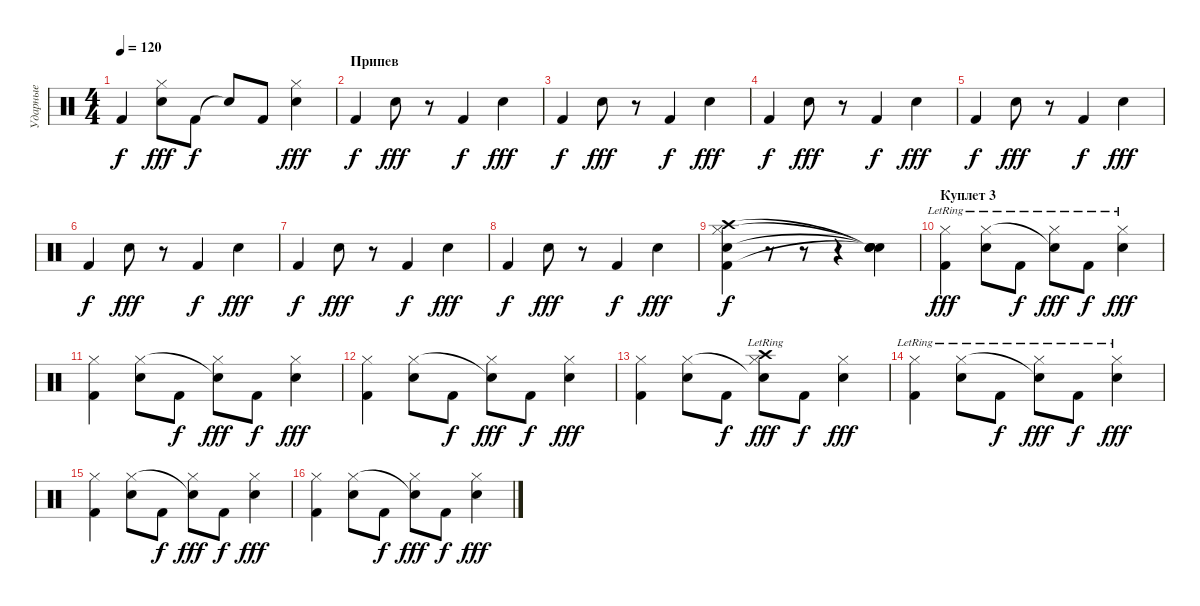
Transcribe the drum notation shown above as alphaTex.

\track ("Ударные" "Ударные") {instrument percussion}
\staff {score}
\articulation defaults
\ts (4 4)
\tempo 120
\clef neutral
\ks c "Kick (hit) 2".4{dy f}
("Snare (hit) 2" "Hi-Hat (closed)").8{dy fff} "Kick (hit) 2".8{dy f} "Snare (hit)"{t}.8 "Kick (hit) 2".8 ("Snare (hit) 2" "Hi-Hat (closed)").4{dy fff} |
\section ("" "Припев")
"Kick (hit) 2".4{dy f} "Snare (hit) 2".8{dy fff} r.8 "Kick (hit) 2".4{dy f} "Snare (hit) 2".4{dy fff} |
"Kick (hit) 2".4{dy f} "Snare (hit) 2".8{dy fff} r.8 "Kick (hit) 2".4{dy f} "Snare (hit) 2".4{dy fff} |
"Kick (hit) 2".4{dy f} "Snare (hit) 2".8{dy fff} r.8 "Kick (hit) 2".4{dy f} "Snare (hit) 2".4{dy fff} |
"Kick (hit) 2".4{dy f} "Snare (hit) 2".8{dy fff} r.8 "Kick (hit) 2".4{dy f} "Snare (hit) 2".4{dy fff} |
"Kick (hit) 2".4{dy f} "Snare (hit) 2".8{dy fff} r.8 "Kick (hit) 2".4{dy f} "Snare (hit) 2".4{dy fff} |
"Kick (hit) 2".4{dy f} "Snare (hit) 2".8{dy fff} r.8 "Kick (hit) 2".4{dy f} "Snare (hit) 2".4{dy fff} |
"Kick (hit) 2".4{dy f} "Snare (hit) 2".8{dy fff} r.8 "Kick (hit) 2".4{dy f} "Snare (hit) 2".4{dy fff} |
("Snare (hit) 2" "Hi-Hat (closed)" "Kick (hit) 2" "Crash high (hit)").4{dy f} r.8 r.8 r.4 ("Snare (hit)"{t} "Snare (hit)"{t} "Snare (hit)"{t} "Snare (hit)"{t}).4 |
\section ("" "Куплет 3")
("Hi-Hat (closed)" "Kick (hit) 2"{lr}).4{dy fff} ("Snare (hit) 2"{lr} "Hi-Hat (closed)").8 "Kick (hit) 2"{lr}.8{dy f} ("Hi-Hat (closed)"{lr} "Snare (hit)"{t}).8{dy fff} "Kick (hit) 2"{lr}.8{dy f} ("Snare (hit) 2"{lr} "Hi-Hat (closed)"{lr}).4{dy fff} |
("Hi-Hat (closed)" "Kick (hit) 2").4 ("Snare (hit) 2" "Hi-Hat (closed)").8 "Kick (hit) 2".8{dy f} ("Hi-Hat (closed)" "Snare (hit)"{t}).8{dy fff} "Kick (hit) 2".8{dy f} ("Snare (hit) 2" "Hi-Hat (closed)").4{dy fff} |
("Hi-Hat (closed)" "Kick (hit) 2").4 ("Snare (hit) 2" "Hi-Hat (closed)").8 "Kick (hit) 2".8{dy f} ("Hi-Hat (closed)" "Snare (hit)"{t}).8{dy fff} "Kick (hit) 2".8{dy f} ("Snare (hit) 2" "Hi-Hat (closed)").4{dy fff} |
("Hi-Hat (closed)" "Kick (hit) 2").4 ("Snare (hit) 2" "Hi-Hat (closed)").8 "Kick (hit) 2".8{dy f} ("Hi-Hat (closed)" "Snare (hit)"{t} "Crash high (hit)"{lr}).8{dy fff} "Kick (hit) 2".8{dy f} ("Snare (hit) 2" "Hi-Hat (closed)").4{dy fff} |
("Hi-Hat (closed)" "Kick (hit) 2"{lr}).4 ("Snare (hit) 2"{lr} "Hi-Hat (closed)").8 "Kick (hit) 2"{lr}.8{dy f} ("Hi-Hat (closed)"{lr} "Snare (hit)"{t}).8{dy fff} "Kick (hit) 2"{lr}.8{dy f} ("Snare (hit) 2"{lr} "Hi-Hat (closed)"{lr}).4{dy fff} |
("Hi-Hat (closed)" "Kick (hit) 2").4 ("Snare (hit) 2" "Hi-Hat (closed)").8 "Kick (hit) 2".8{dy f} ("Hi-Hat (closed)" "Snare (hit)"{t}).8{dy fff} "Kick (hit) 2".8{dy f} ("Snare (hit) 2" "Hi-Hat (closed)").4{dy fff} |
("Hi-Hat (closed)" "Kick (hit) 2").4 ("Snare (hit) 2" "Hi-Hat (closed)").8 "Kick (hit) 2".8{dy f} ("Hi-Hat (closed)" "Snare (hit)"{t}).8{dy fff} "Kick (hit) 2".8{dy f} ("Snare (hit) 2" "Hi-Hat (closed)").4{dy fff}
